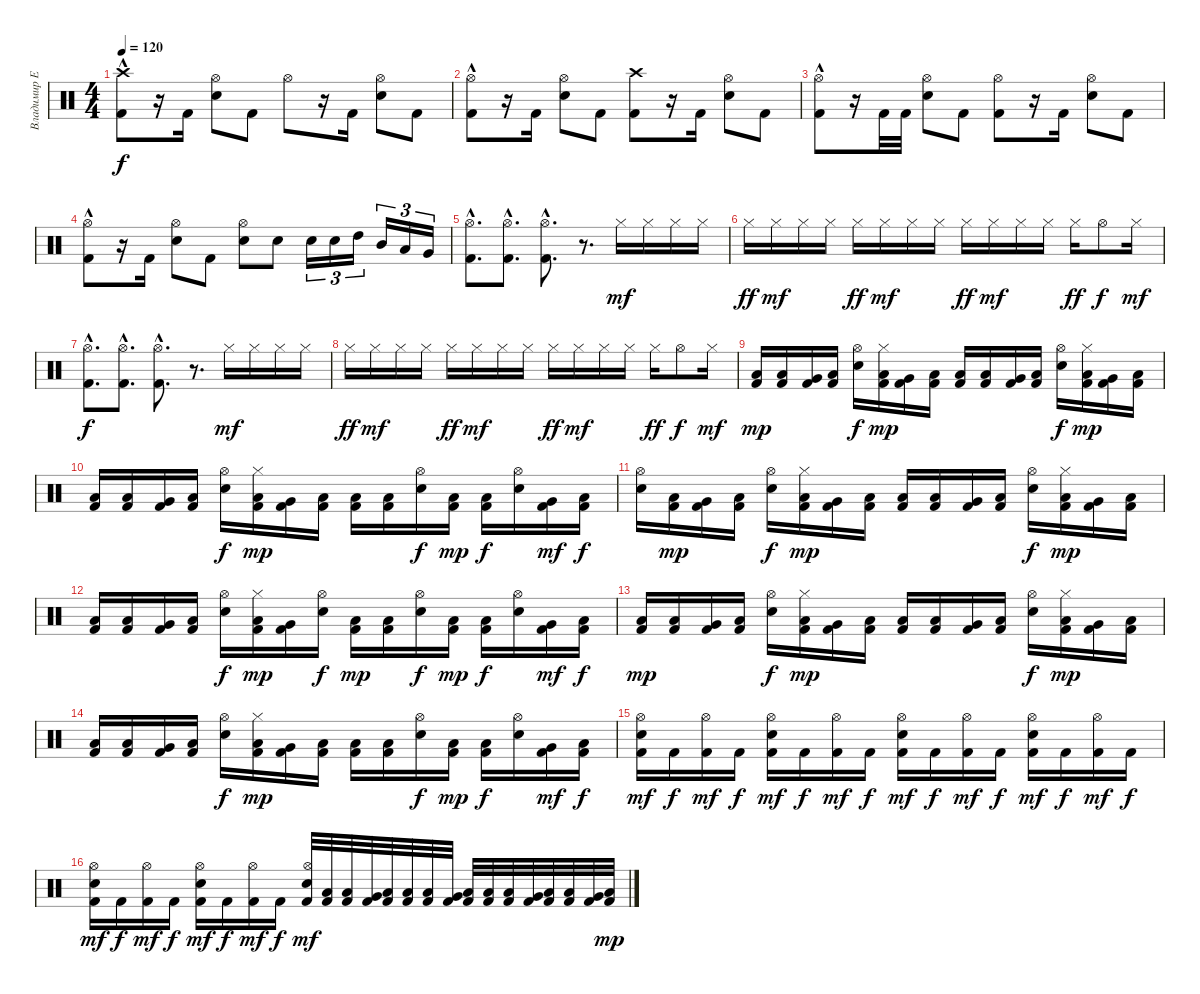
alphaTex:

\track ("Владимир Ермаков" "Владимир Е") {instrument percussion}
\staff {score}
\articulation defaults
\ts (4 4)
\tempo 120
\clef neutral
\ks c
("Crash high (hit)" "Kick (hit) 2"{hac}).8{dy f} r.16 "Kick (hit) 2".16 ("Hi-Hat (open)" "Electric Snare (hit)").8 "Kick (hit) 2".8 "Hi-Hat (open)".8 r.16 "Kick (hit) 2".16 ("Hi-Hat (open)" "Electric Snare (hit)").8 "Kick (hit) 2".8 |
("Hi-Hat (open)" "Kick (hit) 2"{hac}).8 r.16 "Kick (hit) 2".16 ("Hi-Hat (open)" "Electric Snare (hit)").8 "Kick (hit) 2".8 ("Crash high (hit)" "Kick (hit) 2").8 r.16 "Kick (hit) 2".16 ("Hi-Hat (open)" "Electric Snare (hit)").8 "Kick (hit) 2".8 |
("Hi-Hat (open)" "Kick (hit) 2"{hac}).8 r.16 "Kick (hit) 2".32 "Kick (hit) 2".32 ("Hi-Hat (open)" "Electric Snare (hit)").8 "Kick (hit) 2".8 ("Hi-Hat (open)" "Kick (hit) 2").8 r.16 "Kick (hit) 2".16 ("Hi-Hat (open)" "Electric Snare (hit)").8 "Kick (hit) 2".8 |
("Hi-Hat (open)" "Kick (hit) 2"{hac}).8 r.16 "Kick (hit) 2".16 ("Hi-Hat (open)" "Electric Snare (hit)").8 "Kick (hit) 2".8 ("Hi-Hat (open)" "Electric Snare (hit)").8 "Electric Snare (hit)".8 "Electric Snare (hit)".16{tu (3 2)} "Electric Snare (hit)".16{tu (3 2)} "High Tom (hit)".16{tu (3 2)} "Mid Tom (hit)".16{tu (3 2)} "Low Tom (hit)".16{tu (3 2)} "Very Low Tom (hit)".16{tu (3 2)} |
("Hi-Hat (open)"{hac} "Kick (hit) 2"{hac}).8{d} ("Hi-Hat (open)"{hac} "Kick (hit) 2"{hac}).8{d} ("Hi-Hat (open)"{hac} "Kick (hit) 2"{hac}).8{d} r.8{d} "Hi-Hat (closed)".16{dy mf} "Hi-Hat (closed)".16 "Hi-Hat (closed)".16 "Hi-Hat (closed)".16 |
"Hi-Hat (closed)".16{dy ff} "Hi-Hat (closed)".16{dy mf} "Hi-Hat (closed)".16 "Hi-Hat (closed)".16 "Hi-Hat (closed)".16{dy ff} "Hi-Hat (closed)".16{dy mf} "Hi-Hat (closed)".16 "Hi-Hat (closed)".16 "Hi-Hat (closed)".16{dy ff} "Hi-Hat (closed)".16{dy mf} "Hi-Hat (closed)".16 "Hi-Hat (closed)".16 "Hi-Hat (closed)".16{dy ff} "Hi-Hat (open)".8{dy f} "Hi-Hat (closed)".16{dy mf} |
("Hi-Hat (open)"{hac} "Kick (hit) 2"{hac}).8{d dy f} ("Hi-Hat (open)"{hac} "Kick (hit) 2"{hac}).8{d} ("Hi-Hat (open)"{hac} "Kick (hit) 2"{hac}).8{d} r.8{d} "Hi-Hat (closed)".16{dy mf} "Hi-Hat (closed)".16 "Hi-Hat (closed)".16 "Hi-Hat (closed)".16 |
"Hi-Hat (closed)".16{dy ff} "Hi-Hat (closed)".16{dy mf} "Hi-Hat (closed)".16 "Hi-Hat (closed)".16 "Hi-Hat (closed)".16{dy ff} "Hi-Hat (closed)".16{dy mf} "Hi-Hat (closed)".16 "Hi-Hat (closed)".16 "Hi-Hat (closed)".16{dy ff} "Hi-Hat (closed)".16{dy mf} "Hi-Hat (closed)".16 "Hi-Hat (closed)".16 "Hi-Hat (closed)".16{dy ff} "Hi-Hat (open)".8{dy f} "Hi-Hat (closed)".16{dy mf} |
("Kick (hit) 2" "Low Tom (hit)").16{dy mp} ("Kick (hit) 2" "Low Tom (hit)").16 ("Kick (hit) 2" "Very Low Tom (hit)").16 ("Kick (hit) 2" "Low Tom (hit)").16 ("Electric Snare (hit)" "Hi-Hat (open)").16{dy f} ("Kick (hit) 2" "Low Tom (hit)" "Hi-Hat (closed)").16{dy mp} ("Kick (hit) 2" "Very Low Tom (hit)").16 ("Kick (hit) 2" "Low Tom (hit)").16 ("Kick (hit) 2" "Low Tom (hit)").16 ("Kick (hit) 2" "Low Tom (hit)").16 ("Kick (hit) 2" "Very Low Tom (hit)").16 ("Kick (hit) 2" "Low Tom (hit)").16 ("Electric Snare (hit)" "Hi-Hat (open)").16{dy f} ("Kick (hit) 2" "Low Tom (hit)" "Hi-Hat (closed)").16{dy mp} ("Kick (hit) 2" "Very Low Tom (hit)").16 ("Kick (hit) 2" "Low Tom (hit)").16 |
("Kick (hit) 2" "Low Tom (hit)").16 ("Kick (hit) 2" "Low Tom (hit)").16 ("Kick (hit) 2" "Very Low Tom (hit)").16 ("Kick (hit) 2" "Low Tom (hit)").16 ("Electric Snare (hit)" "Hi-Hat (open)").16{dy f} ("Kick (hit) 2" "Low Tom (hit)" "Hi-Hat (closed)").16{dy mp} ("Kick (hit) 2" "Very Low Tom (hit)").16 ("Kick (hit) 2" "Low Tom (hit)").16 ("Kick (hit) 2" "Low Tom (hit)").16 ("Kick (hit) 2" "Low Tom (hit)").16 ("Electric Snare (hit)" "Hi-Hat (open)").16{dy f} ("Kick (hit) 2" "Low Tom (hit)").16{dy mp} ("Kick (hit) 2" "Low Tom (hit)").16{dy f} ("Electric Snare (hit)" "Hi-Hat (open)").16 ("Kick (hit) 2" "Very Low Tom (hit)").16{dy mf} ("Kick (hit) 2" "Low Tom (hit)").16{dy f} |
("Electric Snare (hit)" "Hi-Hat (open)").16 ("Kick (hit) 2" "Low Tom (hit)").16{dy mp} ("Kick (hit) 2" "Very Low Tom (hit)").16 ("Kick (hit) 2" "Low Tom (hit)").16 ("Electric Snare (hit)" "Hi-Hat (open)").16{dy f} ("Kick (hit) 2" "Low Tom (hit)" "Hi-Hat (closed)").16{dy mp} ("Kick (hit) 2" "Very Low Tom (hit)").16 ("Kick (hit) 2" "Low Tom (hit)").16 ("Kick (hit) 2" "Low Tom (hit)").16 ("Kick (hit) 2" "Low Tom (hit)").16 ("Kick (hit) 2" "Very Low Tom (hit)").16 ("Kick (hit) 2" "Low Tom (hit)").16 ("Electric Snare (hit)" "Hi-Hat (open)").16{dy f} ("Kick (hit) 2" "Low Tom (hit)" "Hi-Hat (closed)").16{dy mp} ("Kick (hit) 2" "Very Low Tom (hit)").16 ("Kick (hit) 2" "Low Tom (hit)").16 |
("Kick (hit) 2" "Low Tom (hit)").16 ("Kick (hit) 2" "Low Tom (hit)").16 ("Kick (hit) 2" "Very Low Tom (hit)").16 ("Kick (hit) 2" "Low Tom (hit)").16 ("Electric Snare (hit)" "Hi-Hat (open)").16{dy f} ("Kick (hit) 2" "Low Tom (hit)" "Hi-Hat (closed)").16{dy mp} ("Kick (hit) 2" "Very Low Tom (hit)").16 ("Electric Snare (hit)" "Hi-Hat (open)").16{dy f} ("Kick (hit) 2" "Low Tom (hit)").16{dy mp} ("Kick (hit) 2" "Low Tom (hit)").16 ("Electric Snare (hit)" "Hi-Hat (open)").16{dy f} ("Kick (hit) 2" "Low Tom (hit)").16{dy mp} ("Kick (hit) 2" "Low Tom (hit)").16{dy f} ("Electric Snare (hit)" "Hi-Hat (open)").16 ("Kick (hit) 2" "Very Low Tom (hit)").16{dy mf} ("Kick (hit) 2" "Low Tom (hit)").16{dy f} |
("Kick (hit) 2" "Low Tom (hit)").16{dy mp} ("Kick (hit) 2" "Low Tom (hit)").16 ("Kick (hit) 2" "Very Low Tom (hit)").16 ("Kick (hit) 2" "Low Tom (hit)").16 ("Electric Snare (hit)" "Hi-Hat (open)").16{dy f} ("Kick (hit) 2" "Low Tom (hit)" "Hi-Hat (closed)").16{dy mp} ("Kick (hit) 2" "Very Low Tom (hit)").16 ("Kick (hit) 2" "Low Tom (hit)").16 ("Kick (hit) 2" "Low Tom (hit)").16 ("Kick (hit) 2" "Low Tom (hit)").16 ("Kick (hit) 2" "Very Low Tom (hit)").16 ("Kick (hit) 2" "Low Tom (hit)").16 ("Electric Snare (hit)" "Hi-Hat (open)").16{dy f} ("Kick (hit) 2" "Low Tom (hit)" "Hi-Hat (closed)").16{dy mp} ("Kick (hit) 2" "Very Low Tom (hit)").16 ("Kick (hit) 2" "Low Tom (hit)").16 |
("Kick (hit) 2" "Low Tom (hit)").16 ("Kick (hit) 2" "Low Tom (hit)").16 ("Kick (hit) 2" "Very Low Tom (hit)").16 ("Kick (hit) 2" "Low Tom (hit)").16 ("Electric Snare (hit)" "Hi-Hat (open)").16{dy f} ("Kick (hit) 2" "Low Tom (hit)" "Hi-Hat (closed)").16{dy mp} ("Kick (hit) 2" "Very Low Tom (hit)").16 ("Kick (hit) 2" "Low Tom (hit)").16 ("Kick (hit) 2" "Low Tom (hit)").16 ("Kick (hit) 2" "Low Tom (hit)").16 ("Electric Snare (hit)" "Hi-Hat (open)").16{dy f} ("Kick (hit) 2" "Low Tom (hit)").16{dy mp} ("Kick (hit) 2" "Low Tom (hit)").16{dy f} ("Electric Snare (hit)" "Hi-Hat (open)").16 ("Kick (hit) 2" "Very Low Tom (hit)").16{dy mf} ("Kick (hit) 2" "Low Tom (hit)").16{dy f} |
("Kick (hit) 2" "Electric Snare (hit)" "Hi-Hat (open)").16{dy mf} "Kick (hit) 2".16{dy f} ("Kick (hit) 2" "Hi-Hat (open)").16{dy mf} "Kick (hit) 2".16{dy f} ("Kick (hit) 2" "Electric Snare (hit)" "Hi-Hat (open)").16{dy mf} "Kick (hit) 2".16{dy f} ("Kick (hit) 2" "Hi-Hat (open)").16{dy mf} "Kick (hit) 2".16{dy f} ("Kick (hit) 2" "Electric Snare (hit)" "Hi-Hat (open)").16{dy mf} "Kick (hit) 2".16{dy f} ("Kick (hit) 2" "Hi-Hat (open)").16{dy mf} "Kick (hit) 2".16{dy f} ("Kick (hit) 2" "Electric Snare (hit)" "Hi-Hat (open)").16{dy mf} "Kick (hit) 2".16{dy f} ("Kick (hit) 2" "Hi-Hat (open)").16{dy mf} "Kick (hit) 2".16{dy f} |
("Kick (hit) 2" "Electric Snare (hit)" "Hi-Hat (open)").16{dy mf} "Kick (hit) 2".16{dy f} ("Kick (hit) 2" "Hi-Hat (open)").16{dy mf} "Kick (hit) 2".16{dy f} ("Kick (hit) 2" "Electric Snare (hit)" "Hi-Hat (open)").16{dy mf} "Kick (hit) 2".16{dy f} ("Kick (hit) 2" "Hi-Hat (open)").16{dy mf} "Kick (hit) 2".16{dy f} ("Kick (hit) 2" "Electric Snare (hit)" "Hi-Hat (open)").32{dy mf} ("Kick (hit) 2" "Low Tom (hit)").32 ("Kick (hit) 2" "Low Tom (hit)").32 ("Kick (hit) 2" "Very Low Tom (hit)").32 ("Kick (hit) 2" "Low Tom (hit)").32 ("Kick (hit) 2" "Low Tom (hit)").32 ("Kick (hit) 2" "Low Tom (hit)").32 ("Kick (hit) 2" "Very Low Tom (hit)").32 ("Kick (hit) 2" "Low Tom (hit)").32 ("Kick (hit) 2" "Low Tom (hit)").32 ("Kick (hit) 2" "Low Tom (hit)").32 ("Kick (hit) 2" "Very Low Tom (hit)").32 ("Kick (hit) 2" "Low Tom (hit)").32 ("Kick (hit) 2" "Low Tom (hit)").32 ("Kick (hit) 2" "Very Low Tom (hit)").32 ("Kick (hit) 2" "Low Floor Tom (hit)").32{dy mp}
